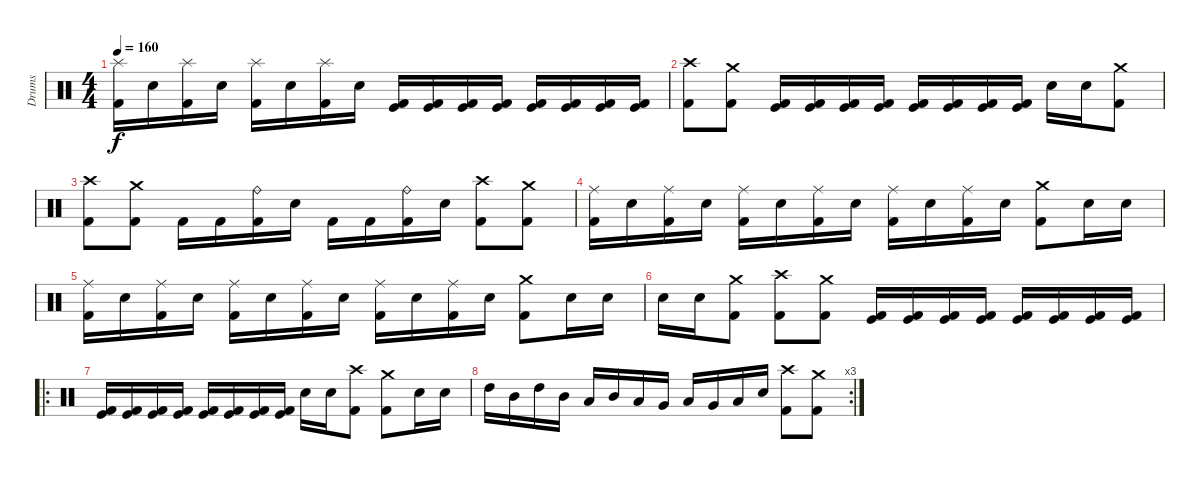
\track ("Drums" "Drums") {instrument percussion}
\staff {score}
\articulation defaults
\ts (4 4)
\tempo 160
\clef neutral
\ks c
("Splash (hit)" "Kick (hit) 2").16{dy f} "Electric Snare (hit)".16 ("Splash (hit)" "Kick (hit) 2").16 "Electric Snare (hit)".16 ("Splash (hit)" "Kick (hit) 2").16 "Electric Snare (hit)".16 ("Splash (hit)" "Kick (hit) 2").16 "Electric Snare (hit)".16 ("Kick (hit)" "Kick (hit) 2").16 ("Kick (hit) 2" "Kick (hit)").16 ("Kick (hit)" "Kick (hit) 2").16 ("Kick (hit) 2" "Kick (hit)").16 ("Kick (hit)" "Kick (hit) 2").16 ("Kick (hit) 2" "Kick (hit)").16 ("Kick (hit)" "Kick (hit) 2").16 ("Kick (hit) 2" "Kick (hit)").16 |
("Crash high (hit)" "Kick (hit) 2").8 ("Crash medium (hit)" "Kick (hit) 2").8 ("Kick (hit)" "Kick (hit) 2").16 ("Kick (hit) 2" "Kick (hit)").16 ("Kick (hit)" "Kick (hit) 2").16 ("Kick (hit) 2" "Kick (hit)").16 ("Kick (hit)" "Kick (hit) 2").16 ("Kick (hit) 2" "Kick (hit)").16 ("Kick (hit)" "Kick (hit) 2").16 ("Kick (hit) 2" "Kick (hit)").16 "Electric Snare (hit)".16 "Electric Snare (hit)".16 ("Crash medium (hit)" "Kick (hit) 2").8 |
("Crash high (hit)" "Kick (hit) 2").8 ("Crash medium (hit)" "Kick (hit) 2").8 "Kick (hit) 2".16 "Kick (hit) 2".16 ("Ride (bell)" "Kick (hit) 2").16 "Electric Snare (hit)".16 "Kick (hit) 2".16 "Kick (hit) 2".16 ("Ride (bell)" "Kick (hit) 2").16 "Electric Snare (hit)".16 ("Crash high (hit)" "Kick (hit) 2").8 ("Crash medium (hit)" "Kick (hit) 2").8 |
("Ride (middle)" "Kick (hit) 2").16 "Electric Snare (hit)".16 ("Ride (middle)" "Kick (hit) 2").16 "Electric Snare (hit)".16 ("Ride (middle)" "Kick (hit) 2").16 "Electric Snare (hit)".16 ("Ride (middle)" "Kick (hit) 2").16 "Electric Snare (hit)".16 ("Ride (middle)" "Kick (hit) 2").16 "Electric Snare (hit)".16 ("Ride (middle)" "Kick (hit) 2").16 "Electric Snare (hit)".16 ("Crash medium (hit)" "Kick (hit) 2").8 "Electric Snare (hit)".16 "Electric Snare (hit)".16 |
("Ride (middle)" "Kick (hit) 2").16 "Electric Snare (hit)".16 ("Ride (middle)" "Kick (hit) 2").16 "Electric Snare (hit)".16 ("Ride (middle)" "Kick (hit) 2").16 "Electric Snare (hit)".16 ("Ride (middle)" "Kick (hit) 2").16 "Electric Snare (hit)".16 ("Ride (middle)" "Kick (hit) 2").16 "Electric Snare (hit)".16 ("Ride (middle)" "Kick (hit) 2").16 "Electric Snare (hit)".16 ("Crash medium (hit)" "Kick (hit) 2").8 "Electric Snare (hit)".16 "Electric Snare (hit)".16 |
"Electric Snare (hit)".16 "Electric Snare (hit)".16 ("Crash medium (hit)" "Kick (hit) 2").8 ("Crash high (hit)" "Kick (hit) 2").8 ("Crash medium (hit)" "Kick (hit) 2").8 ("Kick (hit)" "Kick (hit) 2").16 ("Kick (hit)" "Kick (hit) 2").16 ("Kick (hit)" "Kick (hit) 2").16 ("Kick (hit)" "Kick (hit) 2").16 ("Kick (hit)" "Kick (hit) 2").16 ("Kick (hit)" "Kick (hit) 2").16 ("Kick (hit)" "Kick (hit) 2").16 ("Kick (hit)" "Kick (hit) 2").16 |
\ro
("Kick (hit)" "Kick (hit) 2").16 ("Kick (hit)" "Kick (hit) 2").16 ("Kick (hit)" "Kick (hit) 2").16 ("Kick (hit)" "Kick (hit) 2").16 ("Kick (hit)" "Kick (hit) 2").16 ("Kick (hit)" "Kick (hit) 2").16 ("Kick (hit)" "Kick (hit) 2").16 ("Kick (hit)" "Kick (hit) 2").16 "Electric Snare (hit)".16 "Electric Snare (hit)".16 ("Crash high (hit)" "Kick (hit) 2").8 ("Crash medium (hit)" "Kick (hit) 2").8 "Electric Snare (hit)".16 "Electric Snare (hit)".16 |
\rc 3 "High Tom (hit)".16 "Mid Tom (hit)".16 "High Tom (hit)".16 "Mid Tom (hit)".16 "Low Tom (hit)".16 "Mid Tom (hit)".16 "Low Tom (hit)".16 "Very Low Tom (hit)".16 "Low Tom (hit)".16 "Very Low Tom (hit)".16 "Low Floor Tom (hit)".16 "Electric Snare (hit)".16
("Crash high (hit)" "Kick (hit) 2").8 ("Crash medium (hit)" "Kick (hit) 2").8
